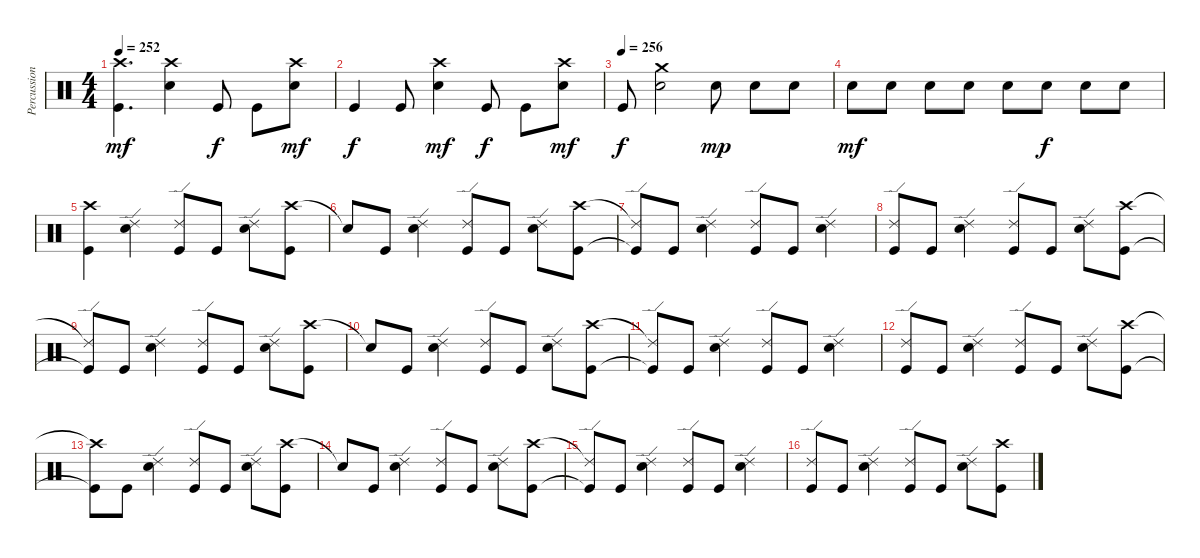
\track ("Percussion" "Percussion") {instrument percussion}
\staff {score}
\articulation defaults
\ts (4 4)
\tempo 252
\clef neutral
\ks c
("Crash high (hit)" "Kick (hit)").4{d dy mf} ("Crash high (hit)" "Electric Snare (hit)").4 "Kick (hit)".8{dy f} "Kick (hit)".8 ("Crash high (hit)" "Electric Snare (hit)").8{dy mf} |
"Kick (hit)".4{dy f} "Kick (hit)".8 ("Crash high (hit)" "Electric Snare (hit)").4{dy mf} "Kick (hit)".8{dy f} "Kick (hit)".8 ("Crash high (hit)" "Electric Snare (hit)").8{dy mf} |
\tempo (256)
"Kick (hit)".8{dy f} ("Crash medium (hit)" "Electric Snare (hit)").2 "Electric Snare (hit)".8{dy mp} "Electric Snare (hit)".8 "Electric Snare (hit)".8 |
"Electric Snare (hit)".8{dy mf} "Electric Snare (hit)".8 "Electric Snare (hit)".8 "Electric Snare (hit)".8 "Electric Snare (hit)".8 "Electric Snare (hit)".8{dy f} "Electric Snare (hit)".8 "Electric Snare (hit)".8 |
("Crash high (hit)" "Kick (hit)").4 ("Ride (edge) 2" "Electric Snare (hit)").4 ("Ride (edge) 2" "Kick (hit)").8 "Kick (hit)".8 ("Ride (edge) 2" "Electric Snare (hit)").8 ("Crash high (hit)" "Kick (hit)").8 |
"Snare (hit)"{t}.8 "Kick (hit)".8 ("Ride (edge) 2" "Electric Snare (hit)").4 ("Ride (edge) 2" "Kick (hit)").8 "Kick (hit)".8 ("Ride (edge) 2" "Electric Snare (hit)").8 ("Crash high (hit)" "Kick (hit)").8 |
("Ride (edge) 2"{t} "Kick (hit)"{t}).8 "Kick (hit)".8 ("Ride (edge) 2" "Electric Snare (hit)").4 ("Ride (edge) 2" "Kick (hit)").8 "Kick (hit)".8 ("Ride (edge) 2" "Electric Snare (hit)").4 |
("Ride (edge) 2" "Kick (hit)").8 "Kick (hit)".8 ("Ride (edge) 2" "Electric Snare (hit)").4 ("Ride (edge) 2" "Kick (hit)").8 "Kick (hit)".8 ("Ride (edge) 2" "Electric Snare (hit)").8 ("Crash high (hit)" "Kick (hit)").8 |
("Ride (edge) 2"{t} "Kick (hit)"{t}).8 "Kick (hit)".8 ("Ride (edge) 2" "Electric Snare (hit)").4 ("Ride (edge) 2" "Kick (hit)").8 "Kick (hit)".8 ("Ride (edge) 2" "Electric Snare (hit)").8 ("Crash high (hit)" "Kick (hit)").8 |
"Snare (hit)"{t}.8 "Kick (hit)".8 ("Ride (edge) 2" "Electric Snare (hit)").4 ("Ride (edge) 2" "Kick (hit)").8 "Kick (hit)".8 ("Ride (edge) 2" "Electric Snare (hit)").8 ("Crash high (hit)" "Kick (hit)").8 |
("Ride (edge) 2"{t} "Kick (hit)"{t}).8 "Kick (hit)".8 ("Ride (edge) 2" "Electric Snare (hit)").4 ("Ride (edge) 2" "Kick (hit)").8 "Kick (hit)".8 ("Ride (edge) 2" "Electric Snare (hit)").4 |
("Ride (edge) 2" "Kick (hit)").8 "Kick (hit)".8 ("Ride (edge) 2" "Electric Snare (hit)").4 ("Ride (edge) 2" "Kick (hit)").8 "Kick (hit)".8 ("Ride (edge) 2" "Electric Snare (hit)").8 ("Crash high (hit)" "Kick (hit)").8 |
("Crash high (hit)"{t} "Kick (hit)"{t}).8 "Kick (hit)".8 ("Ride (edge) 2" "Electric Snare (hit)").4 ("Ride (edge) 2" "Kick (hit)").8 "Kick (hit)".8 ("Ride (edge) 2" "Electric Snare (hit)").8 ("Crash high (hit)" "Kick (hit)").8 |
"Snare (hit)"{t}.8 "Kick (hit)".8 ("Ride (edge) 2" "Electric Snare (hit)").4 ("Ride (edge) 2" "Kick (hit)").8 "Kick (hit)".8 ("Ride (edge) 2" "Electric Snare (hit)").8 ("Crash high (hit)" "Kick (hit)").8 |
("Ride (edge) 2"{t} "Kick (hit)"{t}).8 "Kick (hit)".8 ("Ride (edge) 2" "Electric Snare (hit)").4 ("Ride (edge) 2" "Kick (hit)").8 "Kick (hit)".8 ("Ride (edge) 2" "Electric Snare (hit)").4 |
("Ride (edge) 2" "Kick (hit)").8 "Kick (hit)".8 ("Ride (edge) 2" "Electric Snare (hit)").4 ("Ride (edge) 2" "Kick (hit)").8 "Kick (hit)".8 ("Ride (edge) 2" "Electric Snare (hit)").8 ("Crash high (hit)" "Kick (hit)").8
